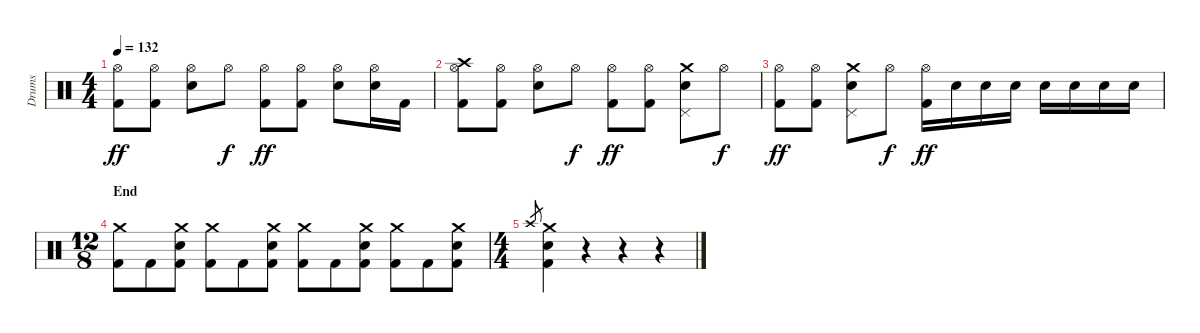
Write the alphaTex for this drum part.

\track ("Drums" "Drums") {instrument percussion}
\staff {score}
\articulation defaults
\ts (4 4)
\tempo 132
\clef neutral
\ks c
("Hi-Hat (open)" "Kick (hit) 2").8{dy ff} ("Hi-Hat (open)" "Kick (hit) 2").8 ("Hi-Hat (open)" "Electric Snare (hit)").8 "Hi-Hat (open)".8{dy f} ("Hi-Hat (open)" "Kick (hit) 2").8{dy ff} ("Hi-Hat (open)" "Kick (hit) 2").8 ("Hi-Hat (open)" "Electric Snare (hit)").8 ("Hi-Hat (open)" "Electric Snare (hit)").16 "Kick (hit) 2".16 |
("Hi-Hat (open)" "Crash high (hit)" "Kick (hit) 2").8 ("Hi-Hat (open)" "Kick (hit) 2").8 ("Hi-Hat (open)" "Electric Snare (hit)").8 "Hi-Hat (open)".8{dy f} ("Hi-Hat (open)" "Kick (hit) 2").8{dy ff} ("Hi-Hat (open)" "Kick (hit) 2").8 ("Pedal Hi-Hat (hit)" "Crash medium (hit)" "Electric Snare (hit)").8 "Hi-Hat (open)".8{dy f} |
("Hi-Hat (open)" "Kick (hit) 2").8{dy ff} ("Hi-Hat (open)" "Kick (hit) 2").8 ("Pedal Hi-Hat (hit)" "Crash medium (hit)" "Electric Snare (hit)").8 "Hi-Hat (open)".8{dy f} ("Hi-Hat (open)" "Kick (hit) 2").16{dy ff} "Electric Snare (hit)".16 "Electric Snare (hit)".16 "Electric Snare (hit)".16 "Electric Snare (hit)".16 "Electric Snare (hit)".16 "Electric Snare (hit)".16 "Electric Snare (hit)".16 |
\ts (12 8)
\section ("" "End")
("Crash medium (hit)" "Kick (hit) 2").8 "Kick (hit) 2".8 ("Crash medium (hit)" "Electric Snare (hit)" "Kick (hit) 2").8 ("Crash medium (hit)" "Kick (hit) 2").8 "Kick (hit) 2".8 ("Crash medium (hit)" "Electric Snare (hit)" "Kick (hit) 2").8 ("Crash medium (hit)" "Kick (hit) 2").8 "Kick (hit) 2".8 ("Crash medium (hit)" "Electric Snare (hit)" "Kick (hit) 2").8 ("Crash medium (hit)" "Kick (hit) 2").8 "Kick (hit) 2".8 ("Crash medium (hit)" "Electric Snare (hit)" "Kick (hit) 2").8 |
\ts (4 4)
"Crash high (hit)".8{gr} ("Crash medium (hit)" "Electric Snare (hit)" "Kick (hit) 2").4 r.4 r.4 r.4
